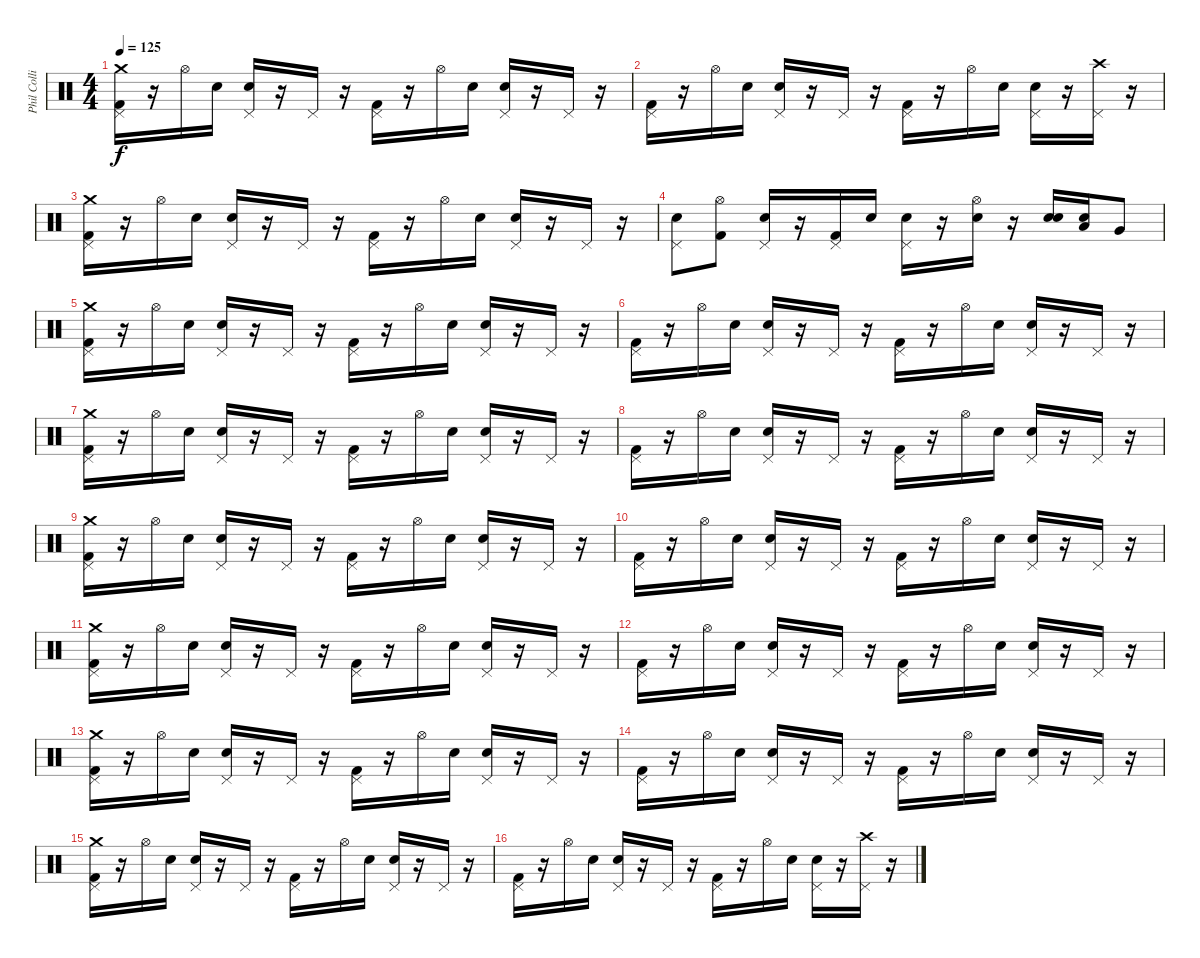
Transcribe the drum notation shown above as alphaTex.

\track ("Phil Collins (drums)" "Phil Colli") {instrument percussion}
\staff {score}
\articulation defaults
\ts (4 4)
\tempo 125
\clef neutral
\ks c
("Crash medium (hit)" "Pedal Hi-Hat (hit)" "Kick (hit) 2").16{dy f} r.16 "Hi-Hat (open)".16 "Electric Snare (hit)".16 ("Pedal Hi-Hat (hit)" "Electric Snare (hit)").16 r.16 "Pedal Hi-Hat (hit)".16 r.16 ("Pedal Hi-Hat (hit)" "Kick (hit) 2").16 r.16 "Hi-Hat (open)".16 "Electric Snare (hit)".16 ("Pedal Hi-Hat (hit)" "Electric Snare (hit)").16 r.16 "Pedal Hi-Hat (hit)".16 r.16 |
("Pedal Hi-Hat (hit)" "Kick (hit) 2").16 r.16 "Hi-Hat (open)".16 "Electric Snare (hit)".16 ("Pedal Hi-Hat (hit)" "Electric Snare (hit)").16 r.16 "Pedal Hi-Hat (hit)".16 r.16 ("Pedal Hi-Hat (hit)" "Kick (hit) 2").16 r.16 "Hi-Hat (open)".16 "Electric Snare (hit)".16 ("Pedal Hi-Hat (hit)" "Electric Snare (hit)").16 r.16 ("Crash high (hit)" "Pedal Hi-Hat (hit)").16 r.16 |
("Crash medium (hit)" "Pedal Hi-Hat (hit)" "Kick (hit) 2").16 r.16 "Hi-Hat (open)".16 "Electric Snare (hit)".16 ("Pedal Hi-Hat (hit)" "Electric Snare (hit)").16 r.16 "Pedal Hi-Hat (hit)".16 r.16 ("Pedal Hi-Hat (hit)" "Kick (hit) 2").16 r.16 "Hi-Hat (open)".16 "Electric Snare (hit)".16 ("Pedal Hi-Hat (hit)" "Electric Snare (hit)").16 r.16 "Pedal Hi-Hat (hit)".16 r.16 |
("Pedal Hi-Hat (hit)" "Electric Snare (hit)").8 ("Hi-Hat (open)" "Kick (hit) 2").8 ("Pedal Hi-Hat (hit)" "Electric Snare (hit)").16 r.16 ("Pedal Hi-Hat (hit)" "Kick (hit) 2").16 "Electric Snare (hit)".16 ("Pedal Hi-Hat (hit)" "Electric Snare (hit)").16 r.16 ("Hi-Hat (open)" "Electric Snare (hit)").16 r.16 ("Electric Snare (hit)" "Electric Snare (hit)").16 ("Low Tom (hit)" "Electric Snare (hit)").16 "Very Low Tom (hit)".8 |
("Crash medium (hit)" "Pedal Hi-Hat (hit)" "Kick (hit) 2").16 r.16 "Hi-Hat (open)".16 "Electric Snare (hit)".16 ("Pedal Hi-Hat (hit)" "Electric Snare (hit)").16 r.16 "Pedal Hi-Hat (hit)".16 r.16 ("Pedal Hi-Hat (hit)" "Kick (hit) 2").16 r.16 "Hi-Hat (open)".16 "Electric Snare (hit)".16 ("Pedal Hi-Hat (hit)" "Electric Snare (hit)").16 r.16 "Pedal Hi-Hat (hit)".16 r.16 |
("Pedal Hi-Hat (hit)" "Kick (hit) 2").16 r.16 "Hi-Hat (open)".16 "Electric Snare (hit)".16 ("Pedal Hi-Hat (hit)" "Electric Snare (hit)").16 r.16 "Pedal Hi-Hat (hit)".16 r.16 ("Pedal Hi-Hat (hit)" "Kick (hit) 2").16 r.16 "Hi-Hat (open)".16 "Electric Snare (hit)".16 ("Pedal Hi-Hat (hit)" "Electric Snare (hit)").16 r.16 "Pedal Hi-Hat (hit)".16 r.16 |
("Crash medium (hit)" "Pedal Hi-Hat (hit)" "Kick (hit) 2").16 r.16 "Hi-Hat (open)".16 "Electric Snare (hit)".16 ("Pedal Hi-Hat (hit)" "Electric Snare (hit)").16 r.16 "Pedal Hi-Hat (hit)".16 r.16 ("Pedal Hi-Hat (hit)" "Kick (hit) 2").16 r.16 "Hi-Hat (open)".16 "Electric Snare (hit)".16 ("Pedal Hi-Hat (hit)" "Electric Snare (hit)").16 r.16 "Pedal Hi-Hat (hit)".16 r.16 |
("Pedal Hi-Hat (hit)" "Kick (hit) 2").16 r.16 "Hi-Hat (open)".16 "Electric Snare (hit)".16 ("Pedal Hi-Hat (hit)" "Electric Snare (hit)").16 r.16 "Pedal Hi-Hat (hit)".16 r.16 ("Pedal Hi-Hat (hit)" "Kick (hit) 2").16 r.16 "Hi-Hat (open)".16 "Electric Snare (hit)".16 ("Pedal Hi-Hat (hit)" "Electric Snare (hit)").16 r.16 "Pedal Hi-Hat (hit)".16 r.16 |
("Crash medium (hit)" "Pedal Hi-Hat (hit)" "Kick (hit) 2").16 r.16 "Hi-Hat (open)".16 "Electric Snare (hit)".16 ("Pedal Hi-Hat (hit)" "Electric Snare (hit)").16 r.16 "Pedal Hi-Hat (hit)".16 r.16 ("Pedal Hi-Hat (hit)" "Kick (hit) 2").16 r.16 "Hi-Hat (open)".16 "Electric Snare (hit)".16 ("Pedal Hi-Hat (hit)" "Electric Snare (hit)").16 r.16 "Pedal Hi-Hat (hit)".16 r.16 |
("Pedal Hi-Hat (hit)" "Kick (hit) 2").16 r.16 "Hi-Hat (open)".16 "Electric Snare (hit)".16 ("Pedal Hi-Hat (hit)" "Electric Snare (hit)").16 r.16 "Pedal Hi-Hat (hit)".16 r.16 ("Pedal Hi-Hat (hit)" "Kick (hit) 2").16 r.16 "Hi-Hat (open)".16 "Electric Snare (hit)".16 ("Pedal Hi-Hat (hit)" "Electric Snare (hit)").16 r.16 "Pedal Hi-Hat (hit)".16 r.16 |
("Crash medium (hit)" "Pedal Hi-Hat (hit)" "Kick (hit) 2").16 r.16 "Hi-Hat (open)".16 "Electric Snare (hit)".16 ("Pedal Hi-Hat (hit)" "Electric Snare (hit)").16 r.16 "Pedal Hi-Hat (hit)".16 r.16 ("Pedal Hi-Hat (hit)" "Kick (hit) 2").16 r.16 "Hi-Hat (open)".16 "Electric Snare (hit)".16 ("Pedal Hi-Hat (hit)" "Electric Snare (hit)").16 r.16 "Pedal Hi-Hat (hit)".16 r.16 |
("Pedal Hi-Hat (hit)" "Kick (hit) 2").16 r.16 "Hi-Hat (open)".16 "Electric Snare (hit)".16 ("Pedal Hi-Hat (hit)" "Electric Snare (hit)").16 r.16 "Pedal Hi-Hat (hit)".16 r.16 ("Pedal Hi-Hat (hit)" "Kick (hit) 2").16 r.16 "Hi-Hat (open)".16 "Electric Snare (hit)".16 ("Pedal Hi-Hat (hit)" "Electric Snare (hit)").16 r.16 "Pedal Hi-Hat (hit)".16 r.16 |
("Crash medium (hit)" "Pedal Hi-Hat (hit)" "Kick (hit) 2").16 r.16 "Hi-Hat (open)".16 "Electric Snare (hit)".16 ("Pedal Hi-Hat (hit)" "Electric Snare (hit)").16 r.16 "Pedal Hi-Hat (hit)".16 r.16 ("Pedal Hi-Hat (hit)" "Kick (hit) 2").16 r.16 "Hi-Hat (open)".16 "Electric Snare (hit)".16 ("Pedal Hi-Hat (hit)" "Electric Snare (hit)").16 r.16 "Pedal Hi-Hat (hit)".16 r.16 |
("Pedal Hi-Hat (hit)" "Kick (hit) 2").16 r.16 "Hi-Hat (open)".16 "Electric Snare (hit)".16 ("Pedal Hi-Hat (hit)" "Electric Snare (hit)").16 r.16 "Pedal Hi-Hat (hit)".16 r.16 ("Pedal Hi-Hat (hit)" "Kick (hit) 2").16 r.16 "Hi-Hat (open)".16 "Electric Snare (hit)".16 ("Pedal Hi-Hat (hit)" "Electric Snare (hit)").16 r.16 "Pedal Hi-Hat (hit)".16 r.16 |
("Crash medium (hit)" "Pedal Hi-Hat (hit)" "Kick (hit) 2").16 r.16 "Hi-Hat (open)".16 "Electric Snare (hit)".16 ("Pedal Hi-Hat (hit)" "Electric Snare (hit)").16 r.16 "Pedal Hi-Hat (hit)".16 r.16 ("Pedal Hi-Hat (hit)" "Kick (hit) 2").16 r.16 "Hi-Hat (open)".16 "Electric Snare (hit)".16 ("Pedal Hi-Hat (hit)" "Electric Snare (hit)").16 r.16 "Pedal Hi-Hat (hit)".16 r.16 |
("Pedal Hi-Hat (hit)" "Kick (hit) 2").16 r.16 "Hi-Hat (open)".16 "Electric Snare (hit)".16 ("Pedal Hi-Hat (hit)" "Electric Snare (hit)").16 r.16 "Pedal Hi-Hat (hit)".16 r.16 ("Pedal Hi-Hat (hit)" "Kick (hit) 2").16 r.16 "Hi-Hat (open)".16 "Electric Snare (hit)".16 ("Pedal Hi-Hat (hit)" "Electric Snare (hit)").16 r.16 ("Crash high (hit)" "Pedal Hi-Hat (hit)").16 r.16
